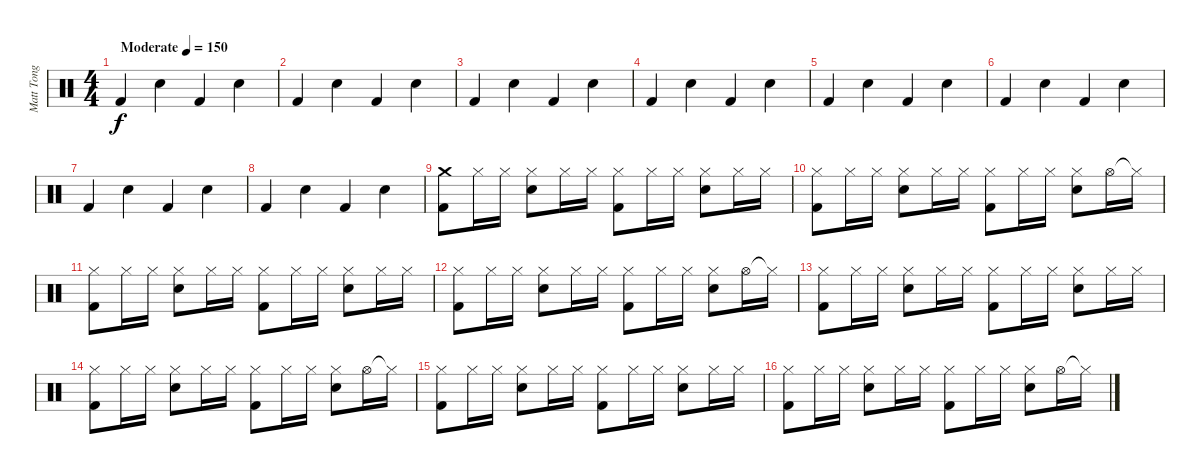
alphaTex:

\track ("Matt Tong" "Matt Tong") {instrument percussion}
\staff {score}
\articulation defaults
\ts (4 4)
\tempo (150 "Moderate")
\clef neutral
\ks c "Kick (hit) 2".4{dy f} "Electric Snare (hit)".4 "Kick (hit) 2".4 "Electric Snare (hit)".4
|
"Kick (hit) 2".4 "Electric Snare (hit)".4 "Kick (hit) 2".4 "Electric Snare (hit)".4 |
"Kick (hit) 2".4 "Electric Snare (hit)".4 "Kick (hit) 2".4 "Electric Snare (hit)".4 |
"Kick (hit) 2".4 "Electric Snare (hit)".4 "Kick (hit) 2".4 "Electric Snare (hit)".4 |
"Kick (hit) 2".4 "Electric Snare (hit)".4 "Kick (hit) 2".4 "Electric Snare (hit)".4 |
"Kick (hit) 2".4 "Electric Snare (hit)".4 "Kick (hit) 2".4 "Electric Snare (hit)".4 |
"Kick (hit) 2".4 "Electric Snare (hit)".4 "Kick (hit) 2".4 "Electric Snare (hit)".4 |
"Kick (hit) 2".4 "Electric Snare (hit)".4 "Kick (hit) 2".4 "Electric Snare (hit)".4 |
("Crash medium (hit)" "Kick (hit) 2").8 "Hi-Hat (closed)".16 "Hi-Hat (closed)".16 ("Hi-Hat (closed)" "Electric Snare (hit)").8 "Hi-Hat (closed)".16 "Hi-Hat (closed)".16 ("Hi-Hat (closed)" "Kick (hit) 2").8 "Hi-Hat (closed)".16 "Hi-Hat (closed)".16 ("Hi-Hat (closed)" "Electric Snare (hit)").8 "Hi-Hat (closed)".16 "Hi-Hat (closed)".16 |
("Hi-Hat (closed)" "Kick (hit) 2").8 "Hi-Hat (closed)".16 "Hi-Hat (closed)".16 ("Hi-Hat (closed)" "Electric Snare (hit)").8 "Hi-Hat (closed)".16 "Hi-Hat (closed)".16 ("Hi-Hat (closed)" "Kick (hit) 2").8 "Hi-Hat (closed)".16 "Hi-Hat (closed)".16 ("Hi-Hat (closed)" "Electric Snare (hit)").8 "Hi-Hat (open)".16 "Hi-Hat (closed)"{t}.16 |
("Hi-Hat (closed)" "Kick (hit) 2").8 "Hi-Hat (closed)".16 "Hi-Hat (closed)".16 ("Hi-Hat (closed)" "Electric Snare (hit)").8 "Hi-Hat (closed)".16 "Hi-Hat (closed)".16 ("Hi-Hat (closed)" "Kick (hit) 2").8 "Hi-Hat (closed)".16 "Hi-Hat (closed)".16 ("Hi-Hat (closed)" "Electric Snare (hit)").8 "Hi-Hat (closed)".16 "Hi-Hat (closed)".16 |
("Hi-Hat (closed)" "Kick (hit) 2").8 "Hi-Hat (closed)".16 "Hi-Hat (closed)".16 ("Hi-Hat (closed)" "Electric Snare (hit)").8 "Hi-Hat (closed)".16 "Hi-Hat (closed)".16 ("Hi-Hat (closed)" "Kick (hit) 2").8 "Hi-Hat (closed)".16 "Hi-Hat (closed)".16 ("Hi-Hat (closed)" "Electric Snare (hit)").8 "Hi-Hat (open)".16 "Hi-Hat (closed)"{t}.16 |
("Hi-Hat (closed)" "Kick (hit) 2").8 "Hi-Hat (closed)".16 "Hi-Hat (closed)".16 ("Hi-Hat (closed)" "Electric Snare (hit)").8 "Hi-Hat (closed)".16 "Hi-Hat (closed)".16 ("Hi-Hat (closed)" "Kick (hit) 2").8 "Hi-Hat (closed)".16 "Hi-Hat (closed)".16 ("Hi-Hat (closed)" "Electric Snare (hit)").8 "Hi-Hat (closed)".16 "Hi-Hat (closed)".16 |
("Hi-Hat (closed)" "Kick (hit) 2").8 "Hi-Hat (closed)".16 "Hi-Hat (closed)".16 ("Hi-Hat (closed)" "Electric Snare (hit)").8 "Hi-Hat (closed)".16 "Hi-Hat (closed)".16 ("Hi-Hat (closed)" "Kick (hit) 2").8 "Hi-Hat (closed)".16 "Hi-Hat (closed)".16 ("Hi-Hat (closed)" "Electric Snare (hit)").8 "Hi-Hat (open)".16 "Hi-Hat (closed)"{t}.16 |
("Hi-Hat (closed)" "Kick (hit) 2").8 "Hi-Hat (closed)".16 "Hi-Hat (closed)".16 ("Hi-Hat (closed)" "Electric Snare (hit)").8 "Hi-Hat (closed)".16 "Hi-Hat (closed)".16 ("Hi-Hat (closed)" "Kick (hit) 2").8 "Hi-Hat (closed)".16 "Hi-Hat (closed)".16 ("Hi-Hat (closed)" "Electric Snare (hit)").8 "Hi-Hat (closed)".16 "Hi-Hat (closed)".16 |
("Hi-Hat (closed)" "Kick (hit) 2").8 "Hi-Hat (closed)".16 "Hi-Hat (closed)".16 ("Hi-Hat (closed)" "Electric Snare (hit)").8 "Hi-Hat (closed)".16 "Hi-Hat (closed)".16 ("Hi-Hat (closed)" "Kick (hit) 2").8 "Hi-Hat (closed)".16 "Hi-Hat (closed)".16 ("Hi-Hat (closed)" "Electric Snare (hit)").8 "Hi-Hat (open)".16 "Hi-Hat (closed)"{t}.16
